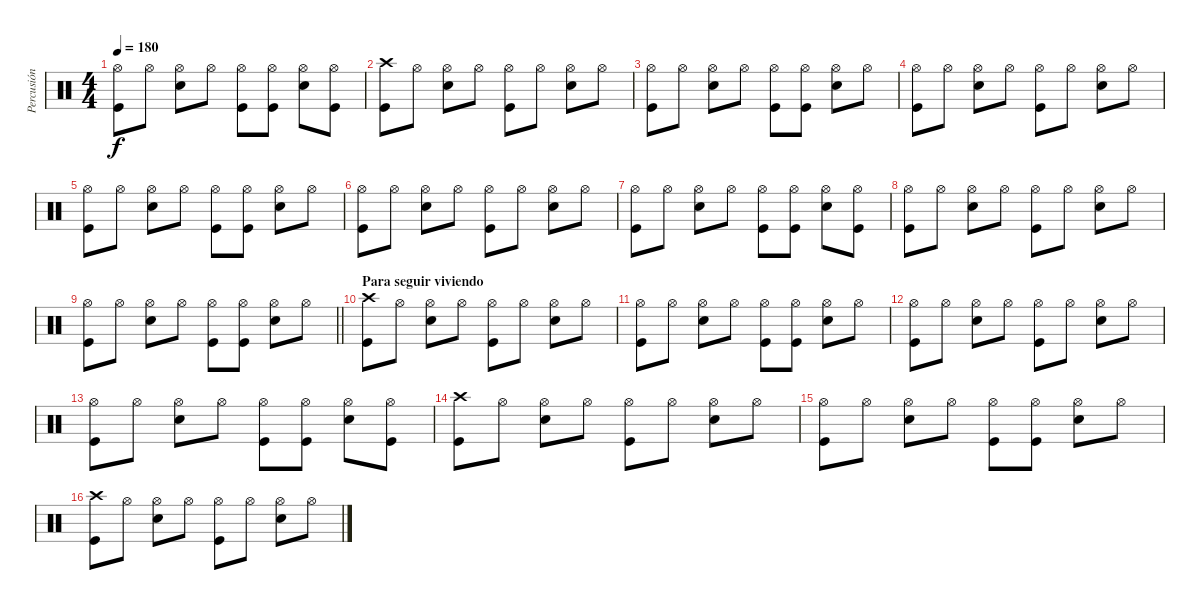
\track ("Percusión" "Percusión") {instrument percussion}
\staff {score}
\articulation defaults
\ts (4 4)
\tempo 180
\clef neutral
\ks c
("Hi-Hat (open)" "Kick (hit)").8{dy f} "Hi-Hat (open)".8 ("Hi-Hat (open)" "Electric Snare (hit)").8 "Hi-Hat (open)".8 ("Hi-Hat (open)" "Kick (hit)").8 ("Hi-Hat (open)" "Kick (hit)").8 ("Hi-Hat (open)" "Electric Snare (hit)").8 ("Hi-Hat (open)" "Kick (hit)").8 |
("Crash high (hit)" "Kick (hit)").8 "Hi-Hat (open)".8 ("Hi-Hat (open)" "Electric Snare (hit)").8 "Hi-Hat (open)".8 ("Hi-Hat (open)" "Kick (hit)").8 "Hi-Hat (open)".8 ("Hi-Hat (open)" "Electric Snare (hit)").8 "Hi-Hat (open)".8 |
("Hi-Hat (open)" "Kick (hit)").8 "Hi-Hat (open)".8 ("Hi-Hat (open)" "Electric Snare (hit)").8 "Hi-Hat (open)".8 ("Hi-Hat (open)" "Kick (hit)").8 ("Hi-Hat (open)" "Kick (hit)").8 ("Hi-Hat (open)" "Electric Snare (hit)").8 "Hi-Hat (open)".8 |
("Hi-Hat (open)" "Kick (hit)").8 "Hi-Hat (open)".8 ("Hi-Hat (open)" "Electric Snare (hit)").8 "Hi-Hat (open)".8 ("Hi-Hat (open)" "Kick (hit)").8 "Hi-Hat (open)".8 ("Hi-Hat (open)" "Electric Snare (hit)").8 "Hi-Hat (open)".8 |
("Hi-Hat (open)" "Kick (hit)").8 "Hi-Hat (open)".8 ("Hi-Hat (open)" "Electric Snare (hit)").8 "Hi-Hat (open)".8 ("Hi-Hat (open)" "Kick (hit)").8 ("Hi-Hat (open)" "Kick (hit)").8 ("Hi-Hat (open)" "Electric Snare (hit)").8 "Hi-Hat (open)".8 |
("Hi-Hat (open)" "Kick (hit)").8 "Hi-Hat (open)".8 ("Hi-Hat (open)" "Electric Snare (hit)").8 "Hi-Hat (open)".8 ("Hi-Hat (open)" "Kick (hit)").8 "Hi-Hat (open)".8 ("Hi-Hat (open)" "Electric Snare (hit)").8 "Hi-Hat (open)".8 |
("Hi-Hat (open)" "Kick (hit)").8 "Hi-Hat (open)".8 ("Hi-Hat (open)" "Electric Snare (hit)").8 "Hi-Hat (open)".8 ("Hi-Hat (open)" "Kick (hit)").8 ("Hi-Hat (open)" "Kick (hit)").8 ("Hi-Hat (open)" "Electric Snare (hit)").8 ("Hi-Hat (open)" "Kick (hit)").8 |
("Hi-Hat (open)" "Kick (hit)").8 "Hi-Hat (open)".8 ("Hi-Hat (open)" "Electric Snare (hit)").8 "Hi-Hat (open)".8 ("Hi-Hat (open)" "Kick (hit)").8 "Hi-Hat (open)".8 ("Hi-Hat (open)" "Electric Snare (hit)").8 "Hi-Hat (open)".8 |
\barLineRight lightlight
("Hi-Hat (open)" "Kick (hit)").8 "Hi-Hat (open)".8 ("Hi-Hat (open)" "Electric Snare (hit)").8 "Hi-Hat (open)".8 ("Hi-Hat (open)" "Kick (hit)").8 ("Hi-Hat (open)" "Kick (hit)").8 ("Hi-Hat (open)" "Electric Snare (hit)").8 "Hi-Hat (open)".8 |
\section ("" "Para seguir viviendo")
("Crash high (hit)" "Kick (hit)").8 "Hi-Hat (open)".8 ("Hi-Hat (open)" "Electric Snare (hit)").8 "Hi-Hat (open)".8 ("Hi-Hat (open)" "Kick (hit)").8 "Hi-Hat (open)".8 ("Hi-Hat (open)" "Electric Snare (hit)").8 "Hi-Hat (open)".8 |
("Hi-Hat (open)" "Kick (hit)").8 "Hi-Hat (open)".8 ("Hi-Hat (open)" "Electric Snare (hit)").8 "Hi-Hat (open)".8 ("Hi-Hat (open)" "Kick (hit)").8 ("Hi-Hat (open)" "Kick (hit)").8 ("Hi-Hat (open)" "Electric Snare (hit)").8 "Hi-Hat (open)".8 |
("Hi-Hat (open)" "Kick (hit)").8 "Hi-Hat (open)".8 ("Hi-Hat (open)" "Electric Snare (hit)").8 "Hi-Hat (open)".8 ("Hi-Hat (open)" "Kick (hit)").8 "Hi-Hat (open)".8 ("Hi-Hat (open)" "Electric Snare (hit)").8 "Hi-Hat (open)".8 |
("Hi-Hat (open)" "Kick (hit)").8 "Hi-Hat (open)".8 ("Hi-Hat (open)" "Electric Snare (hit)").8 "Hi-Hat (open)".8 ("Hi-Hat (open)" "Kick (hit)").8 ("Hi-Hat (open)" "Kick (hit)").8 ("Hi-Hat (open)" "Electric Snare (hit)").8 ("Hi-Hat (open)" "Kick (hit)").8 |
("Crash high (hit)" "Kick (hit)").8 "Hi-Hat (open)".8 ("Hi-Hat (open)" "Electric Snare (hit)").8 "Hi-Hat (open)".8 ("Hi-Hat (open)" "Kick (hit)").8 "Hi-Hat (open)".8 ("Hi-Hat (open)" "Electric Snare (hit)").8 "Hi-Hat (open)".8 |
("Hi-Hat (open)" "Kick (hit)").8 "Hi-Hat (open)".8 ("Hi-Hat (open)" "Electric Snare (hit)").8 "Hi-Hat (open)".8 ("Hi-Hat (open)" "Kick (hit)").8 ("Hi-Hat (open)" "Kick (hit)").8 ("Hi-Hat (open)" "Electric Snare (hit)").8 "Hi-Hat (open)".8 |
("Crash high (hit)" "Kick (hit)").8 "Hi-Hat (open)".8 ("Hi-Hat (open)" "Electric Snare (hit)").8 "Hi-Hat (open)".8 ("Hi-Hat (open)" "Kick (hit)").8 "Hi-Hat (open)".8 ("Hi-Hat (open)" "Electric Snare (hit)").8 "Hi-Hat (open)".8
